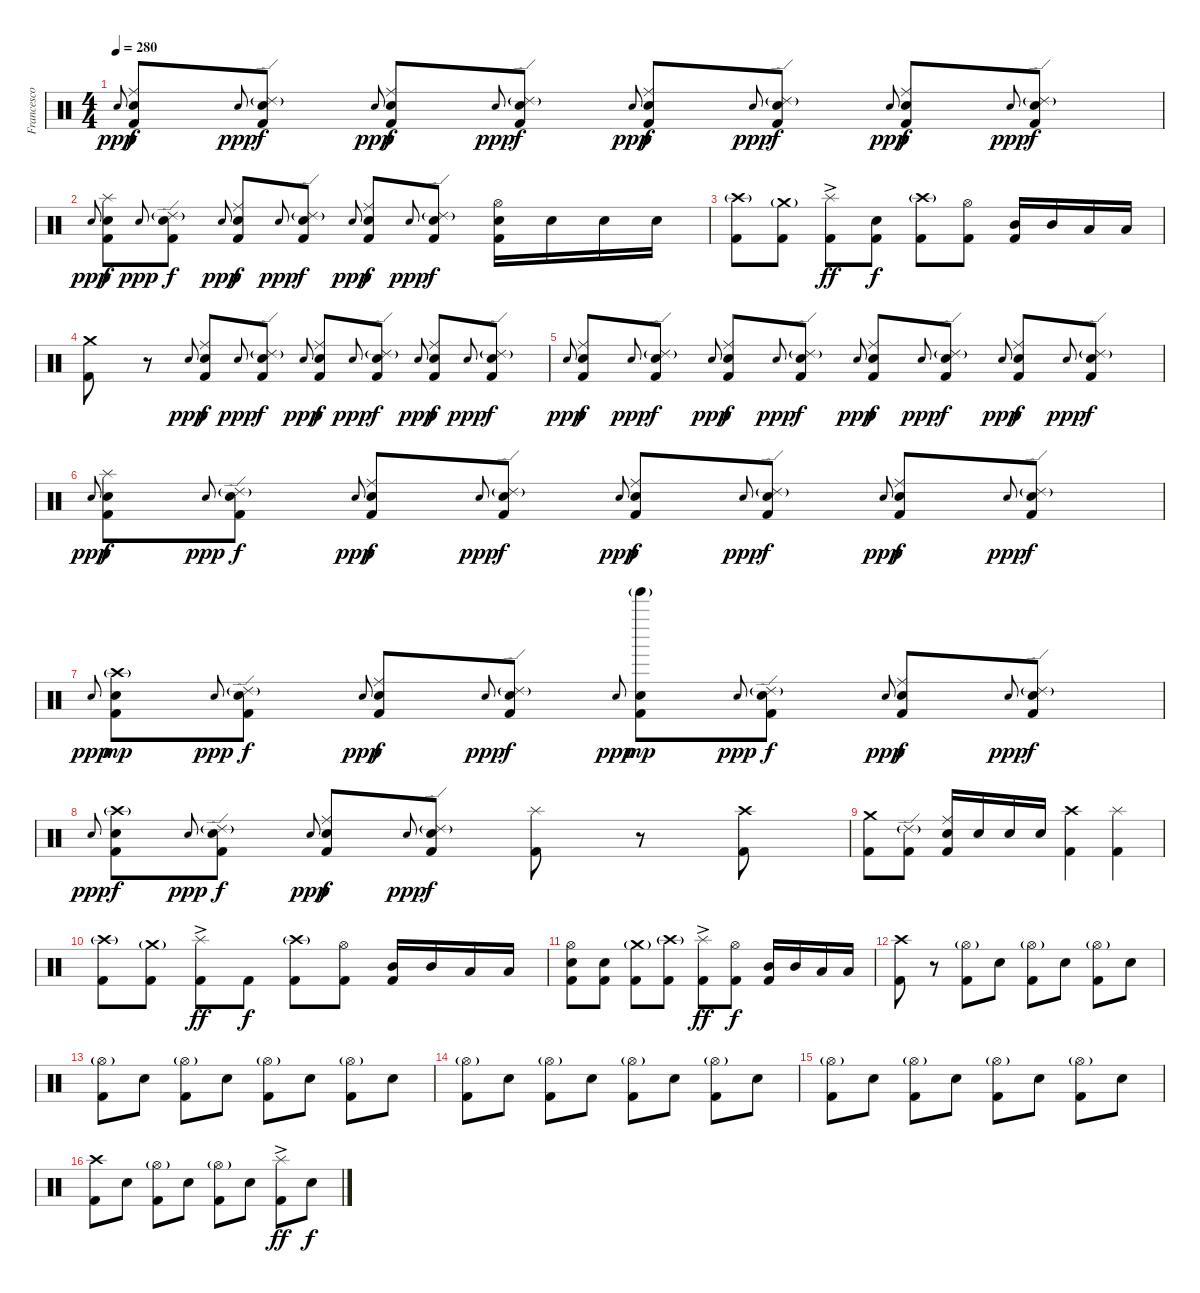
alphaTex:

\track ("Francesco Ferrini" "Francesco ") {instrument percussion}
\staff {score}
\articulation defaults
\ts (4 4)
\tempo 280
\clef neutral
\ks c "Electric Snare (hit)"{h}.8{gr onbeat dy ppp}
("Ride (middle)" "Electric Snare (hit)" "Kick (hit) 2").8{dy f} "Electric Snare (hit)"{h}.8{gr onbeat dy ppp} ("Ride (edge) 2"{g} "Electric Snare (hit)" "Kick (hit) 2").8{dy f} "Electric Snare (hit)"{h}.8{gr onbeat dy ppp} ("Ride (middle)" "Electric Snare (hit)" "Kick (hit) 2").8{dy f} "Electric Snare (hit)"{h}.8{gr onbeat dy ppp} ("Ride (edge) 2"{g} "Electric Snare (hit)" "Kick (hit) 2").8{dy f} "Electric Snare (hit)"{h}.8{gr onbeat dy ppp} ("Ride (middle)" "Electric Snare (hit)" "Kick (hit) 2").8{dy f} "Electric Snare (hit)"{h}.8{gr onbeat dy ppp} ("Ride (edge) 2"{g} "Electric Snare (hit)" "Kick (hit) 2").8{dy f} "Electric Snare (hit)"{h}.8{gr onbeat dy ppp} ("Ride (middle)" "Electric Snare (hit)" "Kick (hit) 2").8{dy f} "Electric Snare (hit)"{h}.8{gr onbeat dy ppp} ("Ride (edge) 2"{g} "Electric Snare (hit)" "Kick (hit) 2").8{dy f} |
"Electric Snare (hit)"{h}.8{gr onbeat dy ppp} ("Splash (hit)" "Electric Snare (hit)" "Kick (hit) 2").8{dy f} "Electric Snare (hit)"{h}.8{gr onbeat dy ppp} ("Ride (edge) 2"{g} "Electric Snare (hit)" "Kick (hit) 2").8{dy f} "Electric Snare (hit)"{h}.8{gr onbeat dy ppp} ("Ride (middle)" "Electric Snare (hit)" "Kick (hit) 2").8{dy f} "Electric Snare (hit)"{h}.8{gr onbeat dy ppp} ("Ride (edge) 2"{g} "Electric Snare (hit)" "Kick (hit) 2").8{dy f} "Electric Snare (hit)"{h}.8{gr onbeat dy ppp} ("Ride (middle)" "Electric Snare (hit)" "Kick (hit) 2").8{dy f} "Electric Snare (hit)"{h}.8{gr onbeat dy ppp} ("Ride (edge) 2"{g} "Electric Snare (hit)" "Kick (hit) 2").8{dy f} ("Hi-Hat (open)" "Electric Snare (hit)" "Kick (hit) 2").16 "Electric Snare (hit)".16 "Electric Snare (hit)".16 "Electric Snare (hit)".16 |
("Crash high (hit)"{g} "Kick (hit) 2").8 ("Crash medium (hit)"{g} "Kick (hit) 2").8 ("Splash (hit)"{ac} "Kick (hit) 2").8{dy ff} ("Electric Snare (hit)" "Kick (hit) 2").8{dy f} ("Crash high (hit)"{g} "Kick (hit) 2").8 ("Hi-Hat (open)" "Kick (hit) 2").8 ("Mid Tom (hit)" "Kick (hit) 2").16 "Mid Tom (hit)".16 "Low Tom (hit)".16 "Low Tom (hit)".16 |
("Crash medium (hit)" "Kick (hit) 2").8 r.8 "Electric Snare (hit)"{h}.8{gr onbeat dy ppp} ("Ride (middle)" "Electric Snare (hit)" "Kick (hit) 2").8{dy f} "Electric Snare (hit)"{h}.8{gr onbeat dy ppp} ("Ride (edge) 2"{g} "Electric Snare (hit)" "Kick (hit) 2").8{dy f} "Electric Snare (hit)"{h}.8{gr onbeat dy ppp} ("Ride (middle)" "Electric Snare (hit)" "Kick (hit) 2").8{dy f} "Electric Snare (hit)"{h}.8{gr onbeat dy ppp} ("Ride (edge) 2"{g} "Electric Snare (hit)" "Kick (hit) 2").8{dy f} "Electric Snare (hit)"{h}.8{gr onbeat dy ppp} ("Ride (middle)" "Electric Snare (hit)" "Kick (hit) 2").8{dy f} "Electric Snare (hit)"{h}.8{gr onbeat dy ppp} ("Ride (edge) 2"{g} "Electric Snare (hit)" "Kick (hit) 2").8{dy f} |
"Electric Snare (hit)"{h}.8{gr onbeat dy ppp} ("Ride (middle)" "Electric Snare (hit)" "Kick (hit) 2").8{dy f} "Electric Snare (hit)"{h}.8{gr onbeat dy ppp} ("Ride (edge) 2"{g} "Electric Snare (hit)" "Kick (hit) 2").8{dy f} "Electric Snare (hit)"{h}.8{gr onbeat dy ppp} ("Ride (middle)" "Electric Snare (hit)" "Kick (hit) 2").8{dy f} "Electric Snare (hit)"{h}.8{gr onbeat dy ppp} ("Ride (edge) 2"{g} "Electric Snare (hit)" "Kick (hit) 2").8{dy f} "Electric Snare (hit)"{h}.8{gr onbeat dy ppp} ("Ride (middle)" "Electric Snare (hit)" "Kick (hit) 2").8{dy f} "Electric Snare (hit)"{h}.8{gr onbeat dy ppp} ("Ride (edge) 2"{g} "Electric Snare (hit)" "Kick (hit) 2").8{dy f} "Electric Snare (hit)"{h}.8{gr onbeat dy ppp} ("Ride (middle)" "Electric Snare (hit)" "Kick (hit) 2").8{dy f} "Electric Snare (hit)"{h}.8{gr onbeat dy ppp} ("Ride (edge) 2"{g} "Electric Snare (hit)" "Kick (hit) 2").8{dy f} |
"Electric Snare (hit)"{h}.8{gr onbeat dy ppp} ("Splash (hit)" "Electric Snare (hit)" "Kick (hit) 2").8{dy f} "Electric Snare (hit)"{h}.8{gr onbeat dy ppp} ("Ride (edge) 2"{g} "Electric Snare (hit)" "Kick (hit) 2").8{dy f} "Electric Snare (hit)"{h}.8{gr onbeat dy ppp} ("Ride (middle)" "Electric Snare (hit)" "Kick (hit) 2").8{dy f} "Electric Snare (hit)"{h}.8{gr onbeat dy ppp} ("Ride (edge) 2"{g} "Electric Snare (hit)" "Kick (hit) 2").8{dy f} "Electric Snare (hit)"{h}.8{gr onbeat dy ppp} ("Ride (middle)" "Electric Snare (hit)" "Kick (hit) 2").8{dy f} "Electric Snare (hit)"{h}.8{gr onbeat dy ppp} ("Ride (edge) 2"{g} "Electric Snare (hit)" "Kick (hit) 2").8{dy f} "Electric Snare (hit)"{h}.8{gr onbeat dy ppp} ("Ride (middle)" "Electric Snare (hit)" "Kick (hit) 2").8{dy f} "Electric Snare (hit)"{h}.8{gr onbeat dy ppp} ("Ride (edge) 2"{g} "Electric Snare (hit)" "Kick (hit) 2").8{dy f} |
"Electric Snare (hit)"{h}.8{gr onbeat dy ppp} ("Crash high (hit)"{g} "Electric Snare (hit)" "Kick (hit) 2").8{dy mp} "Electric Snare (hit)"{h}.8{gr onbeat dy ppp} ("Ride (edge) 2"{g} "Electric Snare (hit)" "Kick (hit) 2").8{dy f} "Electric Snare (hit)"{h}.8{gr onbeat dy ppp} ("Ride (middle)" "Electric Snare (hit)" "Kick (hit) 2").8{dy f} "Electric Snare (hit)"{h}.8{gr onbeat dy ppp} ("Ride (edge) 2"{g} "Electric Snare (hit)" "Kick (hit) 2").8{dy f} "Electric Snare (hit)"{h}.8{gr onbeat dy ppp} ("Tinkle Bell (hit)"{g} "Electric Snare (hit)" "Kick (hit) 2").8{dy mp} "Electric Snare (hit)"{h}.8{gr onbeat dy ppp} ("Ride (edge) 2"{g} "Electric Snare (hit)" "Kick (hit) 2").8{dy f} "Electric Snare (hit)"{h}.8{gr onbeat dy ppp} ("Ride (middle)" "Electric Snare (hit)" "Kick (hit) 2").8{dy f} "Electric Snare (hit)"{h}.8{gr onbeat dy ppp} ("Ride (edge) 2"{g} "Electric Snare (hit)" "Kick (hit) 2").8{dy f} |
"Electric Snare (hit)"{h}.8{gr onbeat dy ppp} ("Crash high (hit)"{g} "Electric Snare (hit)" "Kick (hit) 2").8{dy f} "Electric Snare (hit)"{h}.8{gr onbeat dy ppp} ("Ride (edge) 2"{g} "Electric Snare (hit)" "Kick (hit) 2").8{dy f} "Electric Snare (hit)"{h}.8{gr onbeat dy ppp} ("Ride (middle)" "Electric Snare (hit)" "Kick (hit) 2").8{dy f} "Electric Snare (hit)"{h}.8{gr onbeat dy ppp} ("Ride (edge) 2"{g} "Electric Snare (hit)" "Kick (hit) 2").8{dy f} ("Splash (hit)" "Kick (hit) 2").8 r.8 ("Crash high (hit)" "Kick (hit) 2").8 |
("Crash medium (hit)" "Kick (hit) 2").8 ("Ride (edge) 2"{g} "Kick (hit) 2").8 ("Ride (middle)" "Electric Snare (hit)" "Kick (hit) 2").16 "Electric Snare (hit)".16 "Electric Snare (hit)".16 "Electric Snare (hit)".16 ("Crash high (hit)" "Kick (hit) 2").4 ("Splash (hit)" "Kick (hit) 2").4 |
("Crash high (hit)"{g} "Kick (hit) 2").8 ("Crash medium (hit)"{g} "Kick (hit) 2").8 ("Splash (hit)"{ac} "Kick (hit) 2").8{dy ff} "Kick (hit) 2".8{dy f} ("Crash high (hit)"{g} "Kick (hit) 2").8 ("Hi-Hat (open)" "Kick (hit) 2").8 ("Mid Tom (hit)" "Kick (hit) 2").16 "Mid Tom (hit)".16 "Low Tom (hit)".16 "Low Tom (hit)".16 |
("Hi-Hat (open)" "Electric Snare (hit)" "Kick (hit) 2").8 ("Electric Snare (hit)" "Kick (hit) 2").8 ("Crash medium (hit)"{g} "Kick (hit) 2").8 ("Crash high (hit)"{g} "Kick (hit) 2").8 ("Splash (hit)"{ac} "Kick (hit) 2").8{dy ff} ("Hi-Hat (open)" "Kick (hit) 2").8{dy f} ("Mid Tom (hit)" "Kick (hit) 2").16 "Mid Tom (hit)".16 "Low Tom (hit)".16 "Low Tom (hit)".16 |
("Crash high (hit)" "Kick (hit) 2").8 r.8 ("Hi-Hat (open)"{g} "Kick (hit) 2").8 "Electric Snare (hit)".8 ("Hi-Hat (open)"{g} "Kick (hit) 2").8 "Electric Snare (hit)".8 ("Hi-Hat (open)"{g} "Kick (hit) 2").8 "Electric Snare (hit)".8 |
("Hi-Hat (open)"{g} "Kick (hit) 2").8 "Electric Snare (hit)".8 ("Hi-Hat (open)"{g} "Kick (hit) 2").8 "Electric Snare (hit)".8 ("Hi-Hat (open)"{g} "Kick (hit) 2").8 "Electric Snare (hit)".8 ("Hi-Hat (open)"{g} "Kick (hit) 2").8 "Electric Snare (hit)".8 |
("Hi-Hat (open)"{g} "Kick (hit) 2").8 "Electric Snare (hit)".8 ("Hi-Hat (open)"{g} "Kick (hit) 2").8 "Electric Snare (hit)".8 ("Hi-Hat (open)"{g} "Kick (hit) 2").8 "Electric Snare (hit)".8 ("Hi-Hat (open)"{g} "Kick (hit) 2").8 "Electric Snare (hit)".8 |
("Hi-Hat (open)"{g} "Kick (hit) 2").8 "Electric Snare (hit)".8 ("Hi-Hat (open)"{g} "Kick (hit) 2").8 "Electric Snare (hit)".8 ("Hi-Hat (open)"{g} "Kick (hit) 2").8 "Electric Snare (hit)".8 ("Hi-Hat (open)"{g} "Kick (hit) 2").8 "Electric Snare (hit)".8 |
("Crash high (hit)" "Kick (hit) 2").8 "Electric Snare (hit)".8 ("Hi-Hat (open)"{g} "Kick (hit) 2").8 "Electric Snare (hit)".8 ("Hi-Hat (open)"{g} "Kick (hit) 2").8 "Electric Snare (hit)".8 ("Splash (hit)"{ac} "Kick (hit) 2").8{dy ff} "Electric Snare (hit)".8{dy f}
